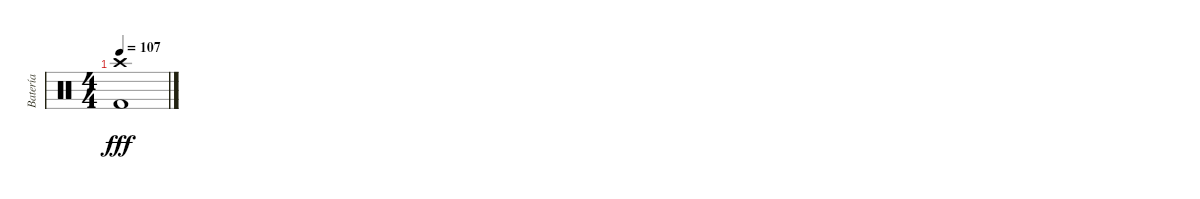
\track ("Batería" "Batería") {instrument percussion}
\staff {score}
\articulation defaults
\ts (4 4)
\tempo 107
\clef neutral
\ks c
("Crash high (hit)" "Kick (hit) 2").1{dy fff}
